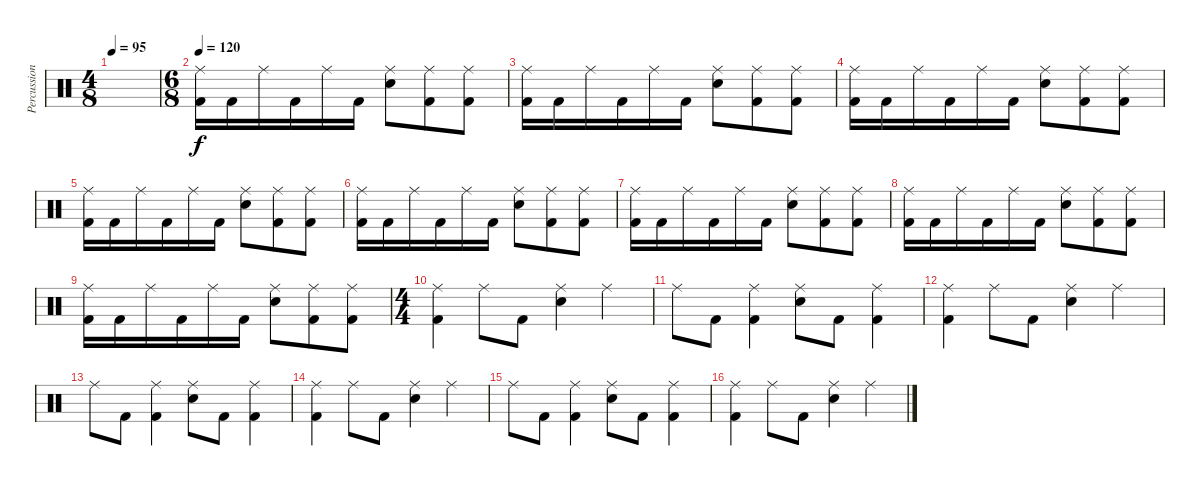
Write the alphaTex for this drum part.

\track ("Percussion" "Percussion") {instrument percussion}
\staff {score}
\articulation defaults
\ts (4 8)
\tempo 95
\clef neutral
\ks c
|
\ts (6 8)
\tempo 120
("Ride (middle)" "Kick (hit) 2").16 "Kick (hit) 2".16 "Ride (middle)".16 "Kick (hit) 2".16 "Ride (middle)".16 "Kick (hit) 2".16 ("Ride (middle)" "Electric Snare (hit)").8 ("Ride (middle)" "Kick (hit) 2").8 ("Ride (middle)" "Kick (hit) 2").8 |
("Ride (middle)" "Kick (hit) 2").16 "Kick (hit) 2".16 "Ride (middle)".16 "Kick (hit) 2".16 "Ride (middle)".16 "Kick (hit) 2".16 ("Ride (middle)" "Electric Snare (hit)").8 ("Ride (middle)" "Kick (hit) 2").8 ("Ride (middle)" "Kick (hit) 2").8 |
("Ride (middle)" "Kick (hit) 2").16 "Kick (hit) 2".16 "Ride (middle)".16 "Kick (hit) 2".16 "Ride (middle)".16 "Kick (hit) 2".16 ("Ride (middle)" "Electric Snare (hit)").8 ("Ride (middle)" "Kick (hit) 2").8 ("Ride (middle)" "Kick (hit) 2").8 |
("Ride (middle)" "Kick (hit) 2").16 "Kick (hit) 2".16 "Ride (middle)".16 "Kick (hit) 2".16 "Ride (middle)".16 "Kick (hit) 2".16 ("Ride (middle)" "Electric Snare (hit)").8 ("Ride (middle)" "Kick (hit) 2").8 ("Ride (middle)" "Kick (hit) 2").8 |
("Ride (middle)" "Kick (hit) 2").16 "Kick (hit) 2".16 "Ride (middle)".16 "Kick (hit) 2".16 "Ride (middle)".16 "Kick (hit) 2".16 ("Ride (middle)" "Electric Snare (hit)").8 ("Ride (middle)" "Kick (hit) 2").8 ("Ride (middle)" "Kick (hit) 2").8 |
("Ride (middle)" "Kick (hit) 2").16 "Kick (hit) 2".16 "Ride (middle)".16 "Kick (hit) 2".16 "Ride (middle)".16 "Kick (hit) 2".16 ("Ride (middle)" "Electric Snare (hit)").8 ("Ride (middle)" "Kick (hit) 2").8 ("Ride (middle)" "Kick (hit) 2").8 |
("Ride (middle)" "Kick (hit) 2").16 "Kick (hit) 2".16 "Ride (middle)".16 "Kick (hit) 2".16 "Ride (middle)".16 "Kick (hit) 2".16 ("Ride (middle)" "Electric Snare (hit)").8 ("Ride (middle)" "Kick (hit) 2").8 ("Ride (middle)" "Kick (hit) 2").8 |
("Ride (middle)" "Kick (hit) 2").16 "Kick (hit) 2".16 "Ride (middle)".16 "Kick (hit) 2".16 "Ride (middle)".16 "Kick (hit) 2".16 ("Ride (middle)" "Electric Snare (hit)").8 ("Ride (middle)" "Kick (hit) 2").8 ("Ride (middle)" "Kick (hit) 2").8 |
\ts (4 4)
("Ride (middle)" "Kick (hit) 2").4 "Ride (middle)".8 "Kick (hit) 2".8 ("Ride (middle)" "Electric Snare (hit)").4 "Ride (middle)".4 |
"Ride (middle)".8 "Kick (hit) 2".8 ("Ride (middle)" "Kick (hit) 2").4 ("Ride (middle)" "Electric Snare (hit)").8 "Kick (hit) 2".8 ("Ride (middle)" "Kick (hit) 2").4 |
("Ride (middle)" "Kick (hit) 2").4 "Ride (middle)".8 "Kick (hit) 2".8 ("Ride (middle)" "Electric Snare (hit)").4 "Ride (middle)".4 |
"Ride (middle)".8 "Kick (hit) 2".8 ("Ride (middle)" "Kick (hit) 2").4 ("Ride (middle)" "Electric Snare (hit)").8 "Kick (hit) 2".8 ("Ride (middle)" "Kick (hit) 2").4 |
("Ride (middle)" "Kick (hit) 2").4 "Ride (middle)".8 "Kick (hit) 2".8 ("Ride (middle)" "Electric Snare (hit)").4 "Ride (middle)".4 |
"Ride (middle)".8 "Kick (hit) 2".8 ("Ride (middle)" "Kick (hit) 2").4 ("Ride (middle)" "Electric Snare (hit)").8 "Kick (hit) 2".8 ("Ride (middle)" "Kick (hit) 2").4 |
("Ride (middle)" "Kick (hit) 2").4 "Ride (middle)".8 "Kick (hit) 2".8 ("Ride (middle)" "Electric Snare (hit)").4 "Ride (middle)".4
